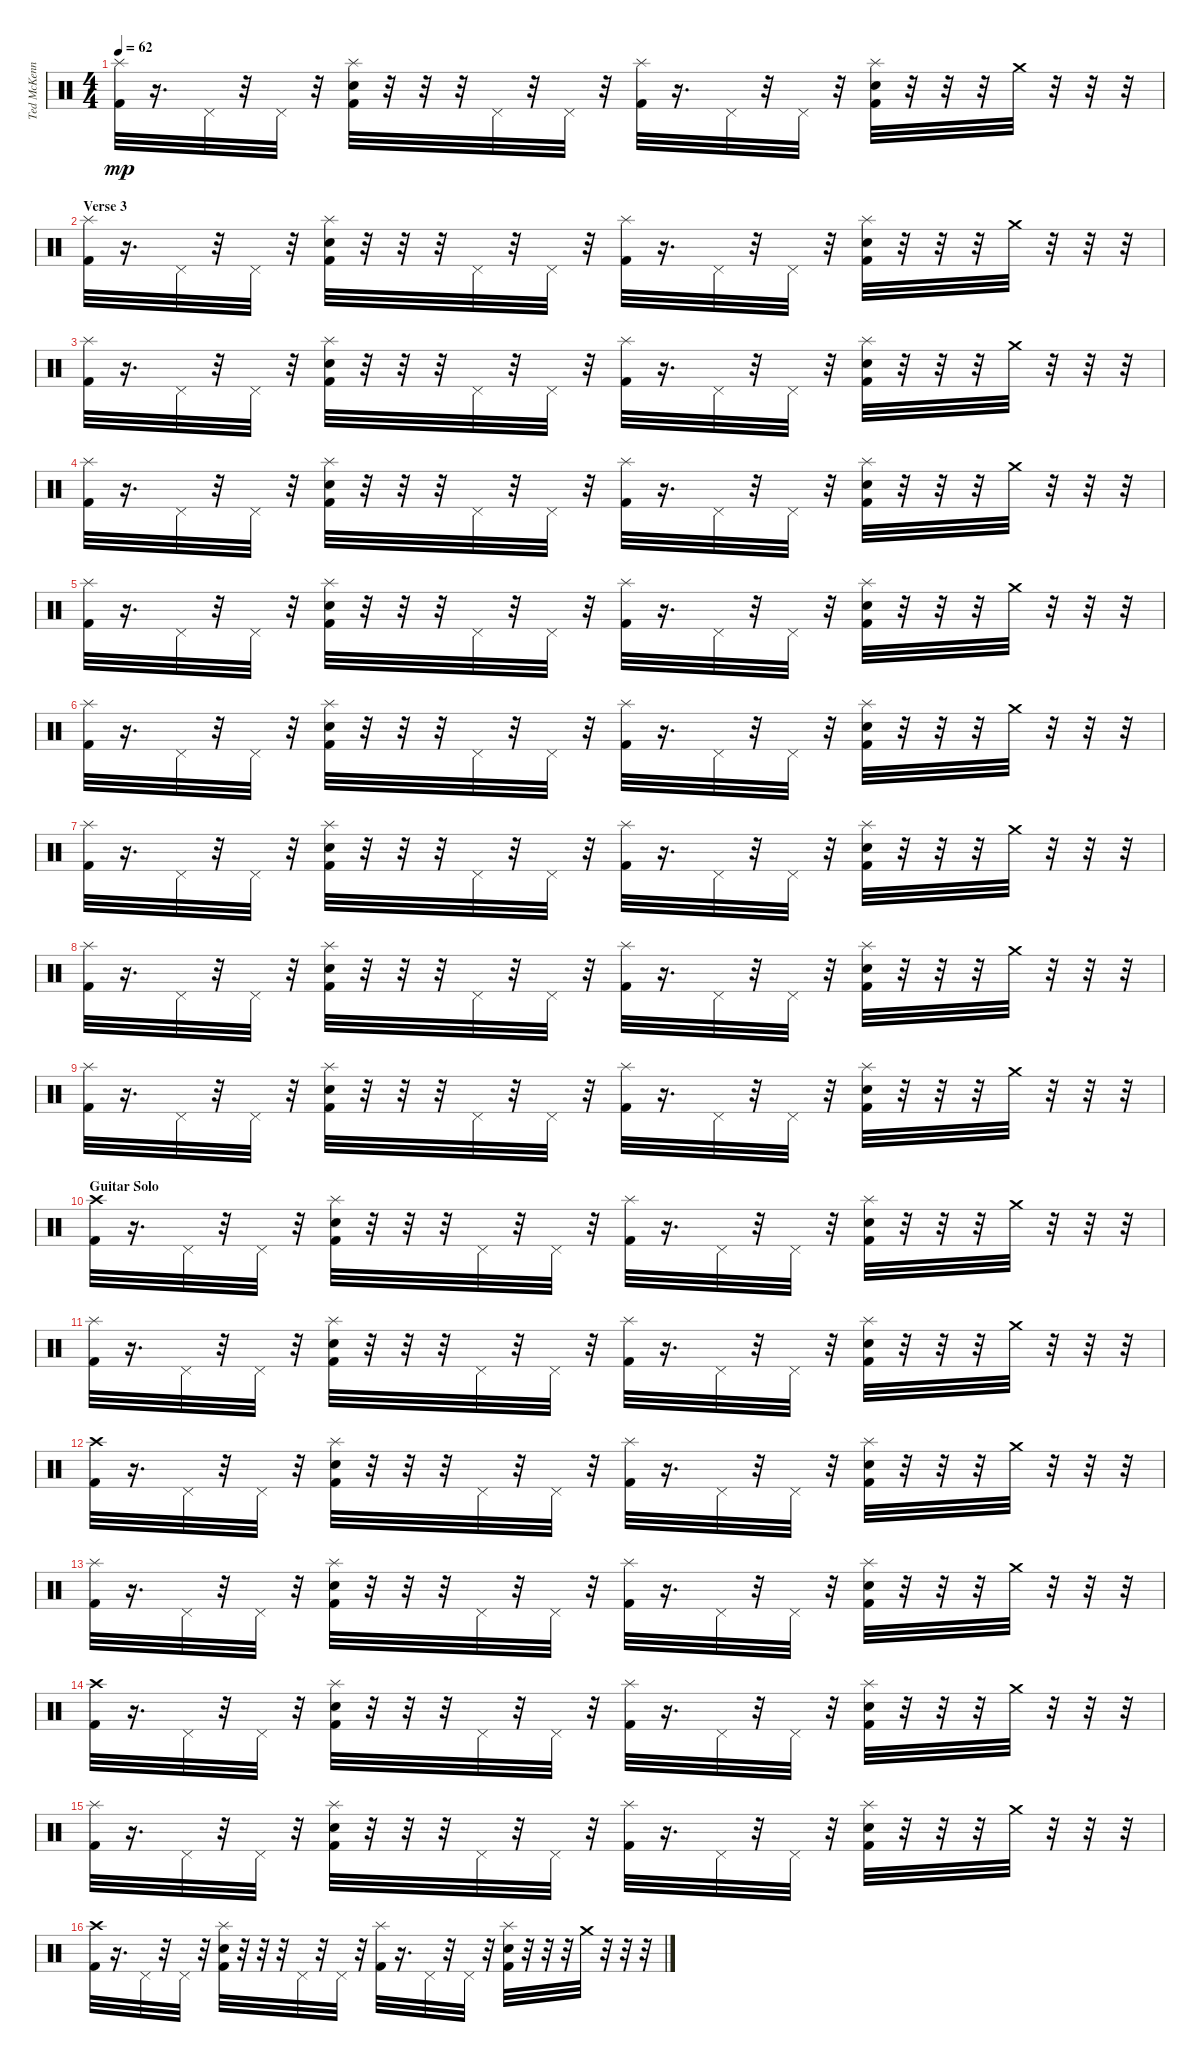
\track ("Ted McKenna" "Ted McKenn") {instrument percussion}
\staff {score}
\articulation defaults
\ts (4 4)
\tempo 62
\clef neutral
\ks c
("Splash (hit)" "Kick (hit) 2").32{dy mp} r.16{d} "Pedal Hi-Hat (hit)".32 r.32 "Pedal Hi-Hat (hit)".32 r.32 ("Splash (hit)" "Electric Snare (hit)" "Kick (hit) 2").32 r.32 r.32 r.32 "Pedal Hi-Hat (hit)".32 r.32 "Pedal Hi-Hat (hit)".32 r.32 ("Splash (hit)" "Kick (hit) 2").32 r.16{d} "Pedal Hi-Hat (hit)".32 r.32 "Pedal Hi-Hat (hit)".32 r.32 ("Splash (hit)" "Electric Snare (hit)" "Kick (hit) 2").32 r.32 r.32 r.32 "Crash medium (hit)".32 r.32 r.32 r.32 |
\section ("" "Verse 3")
("Splash (hit)" "Kick (hit) 2").32 r.16{d} "Pedal Hi-Hat (hit)".32 r.32 "Pedal Hi-Hat (hit)".32 r.32 ("Splash (hit)" "Electric Snare (hit)" "Kick (hit) 2").32 r.32 r.32 r.32 "Pedal Hi-Hat (hit)".32 r.32 "Pedal Hi-Hat (hit)".32 r.32 ("Splash (hit)" "Kick (hit) 2").32 r.16{d} "Pedal Hi-Hat (hit)".32 r.32 "Pedal Hi-Hat (hit)".32 r.32 ("Splash (hit)" "Electric Snare (hit)" "Kick (hit) 2").32 r.32 r.32 r.32 "Crash medium (hit)".32 r.32 r.32 r.32 |
("Splash (hit)" "Kick (hit) 2").32 r.16{d} "Pedal Hi-Hat (hit)".32 r.32 "Pedal Hi-Hat (hit)".32 r.32 ("Splash (hit)" "Electric Snare (hit)" "Kick (hit) 2").32 r.32 r.32 r.32 "Pedal Hi-Hat (hit)".32 r.32 "Pedal Hi-Hat (hit)".32 r.32 ("Splash (hit)" "Kick (hit) 2").32 r.16{d} "Pedal Hi-Hat (hit)".32 r.32 "Pedal Hi-Hat (hit)".32 r.32 ("Splash (hit)" "Electric Snare (hit)" "Kick (hit) 2").32 r.32 r.32 r.32 "Crash medium (hit)".32 r.32 r.32 r.32 |
("Splash (hit)" "Kick (hit) 2").32 r.16{d} "Pedal Hi-Hat (hit)".32 r.32 "Pedal Hi-Hat (hit)".32 r.32 ("Splash (hit)" "Electric Snare (hit)" "Kick (hit) 2").32 r.32 r.32 r.32 "Pedal Hi-Hat (hit)".32 r.32 "Pedal Hi-Hat (hit)".32 r.32 ("Splash (hit)" "Kick (hit) 2").32 r.16{d} "Pedal Hi-Hat (hit)".32 r.32 "Pedal Hi-Hat (hit)".32 r.32 ("Splash (hit)" "Electric Snare (hit)" "Kick (hit) 2").32 r.32 r.32 r.32 "Crash medium (hit)".32 r.32 r.32 r.32 |
("Splash (hit)" "Kick (hit) 2").32 r.16{d} "Pedal Hi-Hat (hit)".32 r.32 "Pedal Hi-Hat (hit)".32 r.32 ("Splash (hit)" "Electric Snare (hit)" "Kick (hit) 2").32 r.32 r.32 r.32 "Pedal Hi-Hat (hit)".32 r.32 "Pedal Hi-Hat (hit)".32 r.32 ("Splash (hit)" "Kick (hit) 2").32 r.16{d} "Pedal Hi-Hat (hit)".32 r.32 "Pedal Hi-Hat (hit)".32 r.32 ("Splash (hit)" "Electric Snare (hit)" "Kick (hit) 2").32 r.32 r.32 r.32 "Crash medium (hit)".32 r.32 r.32 r.32 |
("Splash (hit)" "Kick (hit) 2").32 r.16{d} "Pedal Hi-Hat (hit)".32 r.32 "Pedal Hi-Hat (hit)".32 r.32 ("Splash (hit)" "Electric Snare (hit)" "Kick (hit) 2").32 r.32 r.32 r.32 "Pedal Hi-Hat (hit)".32 r.32 "Pedal Hi-Hat (hit)".32 r.32 ("Splash (hit)" "Kick (hit) 2").32 r.16{d} "Pedal Hi-Hat (hit)".32 r.32 "Pedal Hi-Hat (hit)".32 r.32 ("Splash (hit)" "Electric Snare (hit)" "Kick (hit) 2").32 r.32 r.32 r.32 "Crash medium (hit)".32 r.32 r.32 r.32 |
("Splash (hit)" "Kick (hit) 2").32 r.16{d} "Pedal Hi-Hat (hit)".32 r.32 "Pedal Hi-Hat (hit)".32 r.32 ("Splash (hit)" "Electric Snare (hit)" "Kick (hit) 2").32 r.32 r.32 r.32 "Pedal Hi-Hat (hit)".32 r.32 "Pedal Hi-Hat (hit)".32 r.32 ("Splash (hit)" "Kick (hit) 2").32 r.16{d} "Pedal Hi-Hat (hit)".32 r.32 "Pedal Hi-Hat (hit)".32 r.32 ("Splash (hit)" "Electric Snare (hit)" "Kick (hit) 2").32 r.32 r.32 r.32 "Crash medium (hit)".32 r.32 r.32 r.32 |
("Splash (hit)" "Kick (hit) 2").32 r.16{d} "Pedal Hi-Hat (hit)".32 r.32 "Pedal Hi-Hat (hit)".32 r.32 ("Splash (hit)" "Electric Snare (hit)" "Kick (hit) 2").32 r.32 r.32 r.32 "Pedal Hi-Hat (hit)".32 r.32 "Pedal Hi-Hat (hit)".32 r.32 ("Splash (hit)" "Kick (hit) 2").32 r.16{d} "Pedal Hi-Hat (hit)".32 r.32 "Pedal Hi-Hat (hit)".32 r.32 ("Splash (hit)" "Electric Snare (hit)" "Kick (hit) 2").32 r.32 r.32 r.32 "Crash medium (hit)".32 r.32 r.32 r.32 |
("Splash (hit)" "Kick (hit) 2").32 r.16{d} "Pedal Hi-Hat (hit)".32 r.32 "Pedal Hi-Hat (hit)".32 r.32 ("Splash (hit)" "Electric Snare (hit)" "Kick (hit) 2").32 r.32 r.32 r.32 "Pedal Hi-Hat (hit)".32 r.32 "Pedal Hi-Hat (hit)".32 r.32 ("Splash (hit)" "Kick (hit) 2").32 r.16{d} "Pedal Hi-Hat (hit)".32 r.32 "Pedal Hi-Hat (hit)".32 r.32 ("Splash (hit)" "Electric Snare (hit)" "Kick (hit) 2").32 r.32 r.32 r.32 "Crash medium (hit)".32 r.32 r.32 r.32 |
\section ("" "Guitar Solo")
("Crash high (hit)" "Kick (hit) 2").32 r.16{d} "Pedal Hi-Hat (hit)".32 r.32 "Pedal Hi-Hat (hit)".32 r.32 ("Splash (hit)" "Electric Snare (hit)" "Kick (hit) 2").32 r.32 r.32 r.32 "Pedal Hi-Hat (hit)".32 r.32 "Pedal Hi-Hat (hit)".32 r.32 ("Splash (hit)" "Kick (hit) 2").32 r.16{d} "Pedal Hi-Hat (hit)".32 r.32 "Pedal Hi-Hat (hit)".32 r.32 ("Splash (hit)" "Electric Snare (hit)" "Kick (hit) 2").32 r.32 r.32 r.32 "Crash medium (hit)".32 r.32 r.32 r.32 |
("Splash (hit)" "Kick (hit) 2").32 r.16{d} "Pedal Hi-Hat (hit)".32 r.32 "Pedal Hi-Hat (hit)".32 r.32 ("Splash (hit)" "Electric Snare (hit)" "Kick (hit) 2").32 r.32 r.32 r.32 "Pedal Hi-Hat (hit)".32 r.32 "Pedal Hi-Hat (hit)".32 r.32 ("Splash (hit)" "Kick (hit) 2").32 r.16{d} "Pedal Hi-Hat (hit)".32 r.32 "Pedal Hi-Hat (hit)".32 r.32 ("Splash (hit)" "Electric Snare (hit)" "Kick (hit) 2").32 r.32 r.32 r.32 "Crash medium (hit)".32 r.32 r.32 r.32 |
("Crash high (hit)" "Kick (hit) 2").32 r.16{d} "Pedal Hi-Hat (hit)".32 r.32 "Pedal Hi-Hat (hit)".32 r.32 ("Splash (hit)" "Electric Snare (hit)" "Kick (hit) 2").32 r.32 r.32 r.32 "Pedal Hi-Hat (hit)".32 r.32 "Pedal Hi-Hat (hit)".32 r.32 ("Splash (hit)" "Kick (hit) 2").32 r.16{d} "Pedal Hi-Hat (hit)".32 r.32 "Pedal Hi-Hat (hit)".32 r.32 ("Splash (hit)" "Electric Snare (hit)" "Kick (hit) 2").32 r.32 r.32 r.32 "Crash medium (hit)".32 r.32 r.32 r.32 |
("Splash (hit)" "Kick (hit) 2").32 r.16{d} "Pedal Hi-Hat (hit)".32 r.32 "Pedal Hi-Hat (hit)".32 r.32 ("Splash (hit)" "Electric Snare (hit)" "Kick (hit) 2").32 r.32 r.32 r.32 "Pedal Hi-Hat (hit)".32 r.32 "Pedal Hi-Hat (hit)".32 r.32 ("Splash (hit)" "Kick (hit) 2").32 r.16{d} "Pedal Hi-Hat (hit)".32 r.32 "Pedal Hi-Hat (hit)".32 r.32 ("Splash (hit)" "Electric Snare (hit)" "Kick (hit) 2").32 r.32 r.32 r.32 "Crash medium (hit)".32 r.32 r.32 r.32 |
("Crash high (hit)" "Kick (hit) 2").32 r.16{d} "Pedal Hi-Hat (hit)".32 r.32 "Pedal Hi-Hat (hit)".32 r.32 ("Splash (hit)" "Electric Snare (hit)" "Kick (hit) 2").32 r.32 r.32 r.32 "Pedal Hi-Hat (hit)".32 r.32 "Pedal Hi-Hat (hit)".32 r.32 ("Splash (hit)" "Kick (hit) 2").32 r.16{d} "Pedal Hi-Hat (hit)".32 r.32 "Pedal Hi-Hat (hit)".32 r.32 ("Splash (hit)" "Electric Snare (hit)" "Kick (hit) 2").32 r.32 r.32 r.32 "Crash medium (hit)".32 r.32 r.32 r.32 |
("Splash (hit)" "Kick (hit) 2").32 r.16{d} "Pedal Hi-Hat (hit)".32 r.32 "Pedal Hi-Hat (hit)".32 r.32 ("Splash (hit)" "Electric Snare (hit)" "Kick (hit) 2").32 r.32 r.32 r.32 "Pedal Hi-Hat (hit)".32 r.32 "Pedal Hi-Hat (hit)".32 r.32 ("Splash (hit)" "Kick (hit) 2").32 r.16{d} "Pedal Hi-Hat (hit)".32 r.32 "Pedal Hi-Hat (hit)".32 r.32 ("Splash (hit)" "Electric Snare (hit)" "Kick (hit) 2").32 r.32 r.32 r.32 "Crash medium (hit)".32 r.32 r.32 r.32 |
("Crash high (hit)" "Kick (hit) 2").32 r.16{d} "Pedal Hi-Hat (hit)".32 r.32 "Pedal Hi-Hat (hit)".32 r.32 ("Splash (hit)" "Electric Snare (hit)" "Kick (hit) 2").32 r.32 r.32 r.32 "Pedal Hi-Hat (hit)".32 r.32 "Pedal Hi-Hat (hit)".32 r.32 ("Splash (hit)" "Kick (hit) 2").32 r.16{d} "Pedal Hi-Hat (hit)".32 r.32 "Pedal Hi-Hat (hit)".32 r.32 ("Splash (hit)" "Electric Snare (hit)" "Kick (hit) 2").32 r.32 r.32 r.32 "Crash medium (hit)".32 r.32 r.32 r.32
